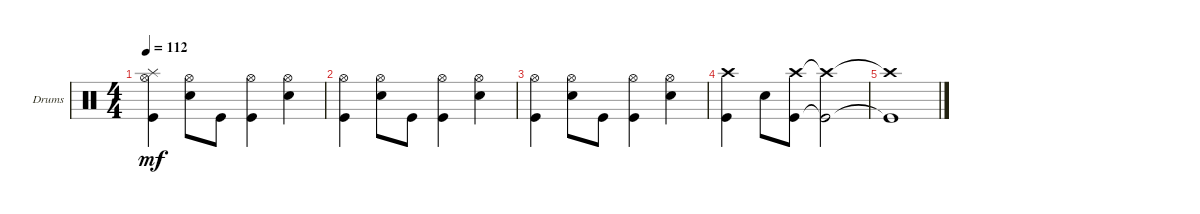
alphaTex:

\defaultSystemsLayout 4
\bracketExtendMode groupsimilarinstruments
\firstSystemTrackNameOrientation horizontal
\otherSystemsTrackNameOrientation horizontal
\track ("Drumkit" "Drums") {instrument percussion}
\staff {score}
\articulation defaults
\ts (4 4)
\tempo 112
\clef neutral
\ks c
("Kick (hit)" "Hi-Hat (open)" "Splash (hit)").4{dy mf} ("Snare (hit) 2" "Hi-Hat (open)").8 "Kick (hit)".8 ("Kick (hit)" "Hi-Hat (open)").4 ("Snare (hit) 2" "Hi-Hat (open)").4 |
("Kick (hit)" "Hi-Hat (open)").4 ("Snare (hit) 2" "Hi-Hat (open)").8 "Kick (hit)".8 ("Kick (hit)" "Hi-Hat (open)").4 ("Snare (hit) 2" "Hi-Hat (open)").4 |
("Kick (hit)" "Hi-Hat (open)").4 ("Snare (hit) 2" "Hi-Hat (open)").8 "Kick (hit)".8 ("Kick (hit)" "Hi-Hat (open)").4 ("Snare (hit) 2" "Hi-Hat (open)").4 |
("Kick (hit)" "Crash high (hit)").4 "Snare (hit) 2".8 ("Kick (hit)" "Crash high (hit)").8 ("Kick (hit)"{t} "Crash high (hit)"{t}).2 |
("Kick (hit)"{t} "Crash high (hit)"{t}).1
